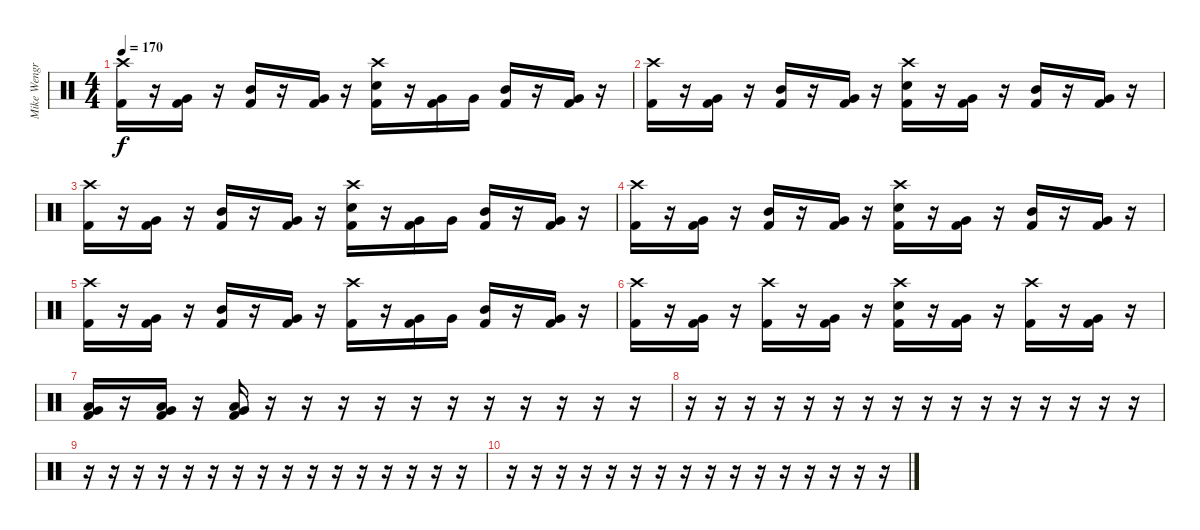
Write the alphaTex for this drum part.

\track ("Mike Wengren" "Mike Wengr") {instrument percussion}
\staff {score}
\articulation defaults
\ts (4 4)
\tempo 170
\clef neutral
\ks c
("Crash high (hit)" "Kick (hit) 2").16{dy f} r.16 ("Very Low Tom (hit)" "Kick (hit) 2").16 r.16 ("Mid Tom (hit)" "Kick (hit) 2").16 r.16 ("Very Low Tom (hit)" "Kick (hit) 2").16 r.16 ("Crash high (hit)" "Snare (hit) 2" "Kick (hit) 2").16 r.16 ("Very Low Tom (hit)" "Kick (hit) 2").16 "Very Low Tom (hit)".16 ("Mid Tom (hit)" "Kick (hit) 2").16 r.16 ("Very Low Tom (hit)" "Kick (hit) 2").16 r.16 |
("Crash high (hit)" "Kick (hit) 2").16 r.16 ("Very Low Tom (hit)" "Kick (hit) 2").16 r.16 ("Mid Tom (hit)" "Kick (hit) 2").16 r.16 ("Very Low Tom (hit)" "Kick (hit) 2").16 r.16 ("Crash high (hit)" "Snare (hit) 2" "Kick (hit) 2").16 r.16 ("Very Low Tom (hit)" "Kick (hit) 2").16 r.16 ("Mid Tom (hit)" "Kick (hit) 2").16 r.16 ("Very Low Tom (hit)" "Kick (hit) 2").16 r.16 |
("Crash high (hit)" "Kick (hit) 2").16 r.16 ("Very Low Tom (hit)" "Kick (hit) 2").16 r.16 ("Mid Tom (hit)" "Kick (hit) 2").16 r.16 ("Very Low Tom (hit)" "Kick (hit) 2").16 r.16 ("Crash high (hit)" "Snare (hit) 2" "Kick (hit) 2").16 r.16 ("Very Low Tom (hit)" "Kick (hit) 2").16 "Very Low Tom (hit)".16 ("Mid Tom (hit)" "Kick (hit) 2").16 r.16 ("Very Low Tom (hit)" "Kick (hit) 2").16 r.16 |
("Crash high (hit)" "Kick (hit) 2").16 r.16 ("Very Low Tom (hit)" "Kick (hit) 2").16 r.16 ("Mid Tom (hit)" "Kick (hit) 2").16 r.16 ("Very Low Tom (hit)" "Kick (hit) 2").16 r.16 ("Crash high (hit)" "Snare (hit) 2" "Kick (hit) 2").16 r.16 ("Very Low Tom (hit)" "Kick (hit) 2").16 r.16 ("Mid Tom (hit)" "Kick (hit) 2").16 r.16 ("Very Low Tom (hit)" "Kick (hit) 2").16 r.16 |
("Crash high (hit)" "Kick (hit) 2").16 r.16 ("Very Low Tom (hit)" "Kick (hit) 2").16 r.16 ("Mid Tom (hit)" "Kick (hit) 2").16 r.16 ("Very Low Tom (hit)" "Kick (hit) 2").16 r.16 ("Crash high (hit)" "Kick (hit) 2").16 r.16 ("Very Low Tom (hit)" "Kick (hit) 2").16 "Very Low Tom (hit)".16 ("Mid Tom (hit)" "Kick (hit) 2").16 r.16 ("Very Low Tom (hit)" "Kick (hit) 2").16 r.16 |
("Crash high (hit)" "Kick (hit) 2").16 r.16 ("Very Low Tom (hit)" "Kick (hit) 2").16 r.16 ("Crash high (hit)" "Kick (hit) 2").16 r.16 ("Very Low Tom (hit)" "Kick (hit) 2").16 r.16 ("Crash high (hit)" "Snare (hit) 2" "Kick (hit) 2").16 r.16 ("Very Low Tom (hit)" "Kick (hit) 2").16 r.16 ("Crash high (hit)" "Kick (hit) 2").16 r.16 ("Very Low Tom (hit)" "Kick (hit) 2").16 r.16 |
("Low Tom (hit)" "Very Low Tom (hit)" "Kick (hit) 2").16 r.16 ("Low Tom (hit)" "Very Low Tom (hit)" "Kick (hit) 2").16 r.16 ("Low Tom (hit)" "Very Low Tom (hit)" "Kick (hit) 2").16 r.16 r.16 r.16 r.16 r.16 r.16 r.16 r.16 r.16 r.16 r.16 |
r.16 r.16 r.16 r.16 r.16 r.16 r.16 r.16 r.16 r.16 r.16 r.16 r.16 r.16 r.16 r.16 |
r.16 r.16 r.16 r.16 r.16 r.16 r.16 r.16 r.16 r.16 r.16 r.16 r.16 r.16 r.16 r.16 |
r.16 r.16 r.16 r.16 r.16 r.16 r.16 r.16 r.16 r.16 r.16 r.16 r.16 r.16 r.16 r.16
